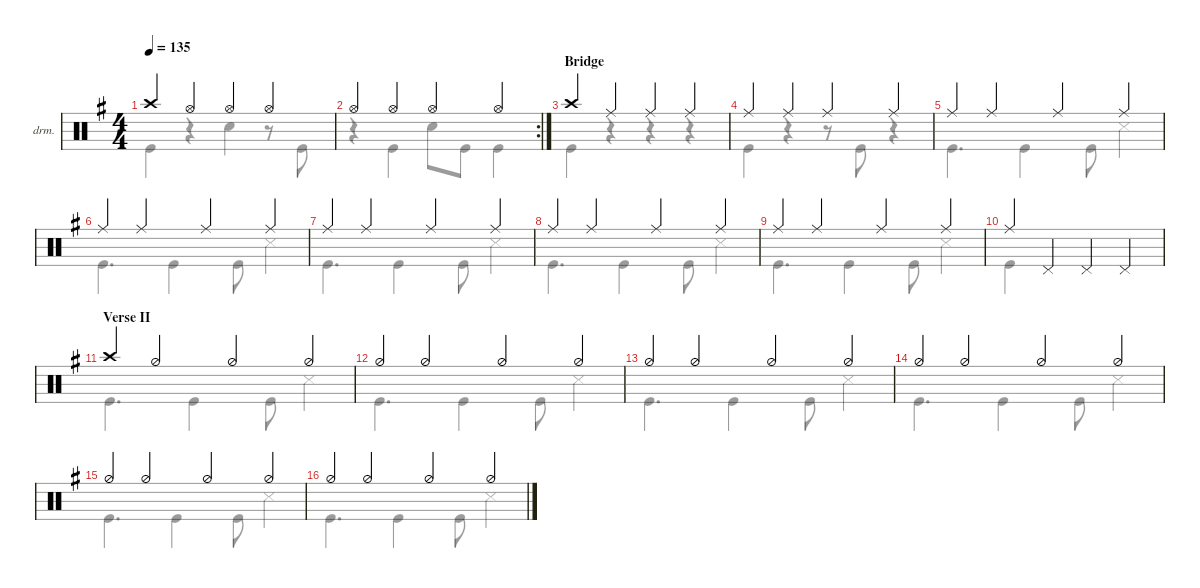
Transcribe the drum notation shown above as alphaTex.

\defaultSystemsLayout 4
\hideDynamics
\bracketExtendMode nobrackets
\firstSystemTrackNameOrientation horizontal
\otherSystemsTrackNameOrientation horizontal
\track ("Drumkit" "drm.") {instrument percussion}
\staff {score}
\articulation defaults
\voice
\ts (4 4)
\tempo 135
\clef neutral
\ks eminor "Crash high (hit)".4{dy mf} "Hi-Hat (open)".4 "Hi-Hat (open)".4 "Hi-Hat (open)".4
|
\rc 2 "Hi-Hat (open)".4 "Hi-Hat (open)".4 "Hi-Hat (open)".4 "Hi-Hat (open)".4
|
\section ("" "Bridge")
"Crash high (hit)".4{dy mp} "Ride (middle)".4 "Ride (middle)".4 "Ride (middle)".4 |
"Ride (middle)".4 "Ride (middle)".4 "Ride (middle)".4 "Ride (middle)".4 |
"Ride (middle)".4 "Ride (middle)".4 "Ride (middle)".4 "Ride (middle)".4 |
"Ride (middle)".4 "Ride (middle)".4 "Ride (middle)".4 "Ride (middle)".4 |
"Ride (middle)".4 "Ride (middle)".4 "Ride (middle)".4 "Ride (middle)".4 |
"Ride (middle)".4 "Ride (middle)".4 "Ride (middle)".4 "Ride (middle)".4 |
"Ride (middle)".4 "Ride (middle)".4 "Ride (middle)".4 "Ride (middle)".4 |
"Ride (middle)".4 "Pedal Hi-Hat (hit)".4 "Pedal Hi-Hat (hit)".4 "Pedal Hi-Hat (hit)".4 |
\section ("" "Verse II")
"Crash high (hit)".4 "Hi-Hat (half)".4{dy p} "Hi-Hat (half)".4 "Hi-Hat (half)".4 |
"Hi-Hat (half)".4{dy mp} "Hi-Hat (half)".4{dy p} "Hi-Hat (half)".4 "Hi-Hat (half)".4 |
"Hi-Hat (half)".4{dy mp} "Hi-Hat (half)".4{dy p} "Hi-Hat (half)".4 "Hi-Hat (half)".4 |
"Hi-Hat (half)".4{dy mp} "Hi-Hat (half)".4{dy p} "Hi-Hat (half)".4 "Hi-Hat (half)".4 |
"Hi-Hat (half)".4{dy mp} "Hi-Hat (half)".4{dy p} "Hi-Hat (half)".4 "Hi-Hat (half)".4 |
"Hi-Hat (half)".4{dy mp} "Hi-Hat (half)".4{dy p} "Hi-Hat (half)".4 "Hi-Hat (half)".4
\voice
\clef neutral
\ottava regular
\simile none
\ks eminor "Kick (hit)".4{dy mf}
r.4 "Snare (hit) 2".4 r.8 "Kick (hit)".8 |
r.4 "Kick (hit)".4 "Snare (hit) 2".8 "Kick (hit)".8 "Kick (hit)".4 |
"Kick (hit)".4{dy mp} r.4 r.4 r.4 |
"Kick (hit)".4 r.4 r.8 "Kick (hit)".8 r.4 |
"Kick (hit)".4{d} "Kick (hit)".4 "Kick (hit)".8 "Snare (side stick) 3".4 |
"Kick (hit)".4{d} "Kick (hit)".4 "Kick (hit)".8 "Snare (side stick) 3".4 |
"Kick (hit)".4{d} "Kick (hit)".4 "Kick (hit)".8 "Snare (side stick) 3".4 |
"Kick (hit)".4{d} "Kick (hit)".4 "Kick (hit)".8 "Snare (side stick) 3".4 |
"Kick (hit)".4{d} "Kick (hit)".4 "Kick (hit)".8 "Snare (side stick) 3".4 |
"Kick (hit)".4 |
"Kick (hit)".4{d dy mf} "Kick (hit)".4{dy mp} "Kick (hit)".8 "Snare (side stick) 3".4{dy mf} |
"Kick (hit)".4{d} "Kick (hit)".4{dy mp} "Kick (hit)".8 "Snare (side stick) 3".4{dy mf} |
"Kick (hit)".4{d} "Kick (hit)".4{dy mp} "Kick (hit)".8 "Snare (side stick) 3".4{dy mf} |
"Kick (hit)".4{d} "Kick (hit)".4{dy mp} "Kick (hit)".8 "Snare (side stick) 3".4{dy mf} |
"Kick (hit)".4{d} "Kick (hit)".4{dy mp} "Kick (hit)".8 "Snare (side stick) 3".4{dy mf} |
"Kick (hit)".4{d} "Kick (hit)".4{dy mp} "Kick (hit)".8 "Snare (side stick) 3".4{dy mf}
